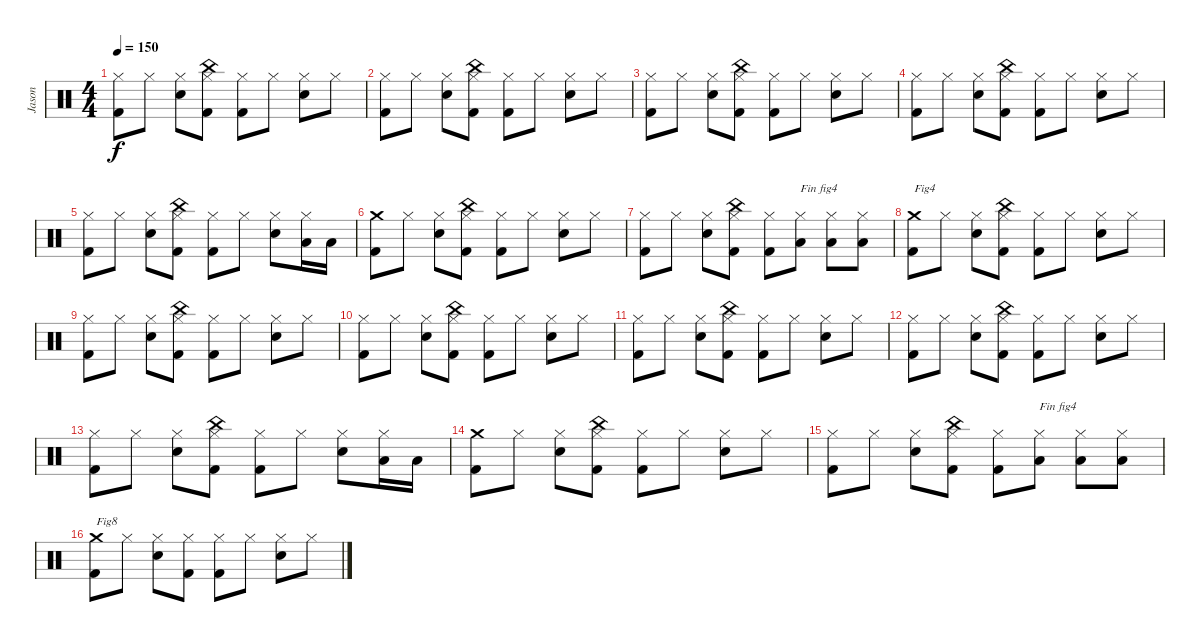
\track ("Jason" "Jason") {instrument percussion}
\staff {score}
\articulation defaults
\ts (4 4)
\tempo 150
\clef neutral
\ks c
("Kick (hit) 2" "Hi-Hat (closed)").8{dy f} "Hi-Hat (closed)".8 ("Electric Snare (hit)" "Hi-Hat (closed)").8 ("Kick (hit) 2" "China (hit)" "Hi-Hat (closed)").8 ("Kick (hit) 2" "Hi-Hat (closed)").8 "Hi-Hat (closed)".8 ("Electric Snare (hit)" "Hi-Hat (closed)").8 "Hi-Hat (closed)".8 |
("Kick (hit) 2" "Hi-Hat (closed)").8 "Hi-Hat (closed)".8 ("Electric Snare (hit)" "Hi-Hat (closed)").8 ("Kick (hit) 2" "China (hit)" "Hi-Hat (closed)").8 ("Kick (hit) 2" "Hi-Hat (closed)").8 "Hi-Hat (closed)".8 ("Electric Snare (hit)" "Hi-Hat (closed)").8 "Hi-Hat (closed)".8 |
("Kick (hit) 2" "Hi-Hat (closed)").8 "Hi-Hat (closed)".8 ("Electric Snare (hit)" "Hi-Hat (closed)").8 ("Kick (hit) 2" "China (hit)" "Hi-Hat (closed)").8 ("Kick (hit) 2" "Hi-Hat (closed)").8 "Hi-Hat (closed)".8 ("Electric Snare (hit)" "Hi-Hat (closed)").8 "Hi-Hat (closed)".8 |
("Kick (hit) 2" "Hi-Hat (closed)").8 "Hi-Hat (closed)".8 ("Electric Snare (hit)" "Hi-Hat (closed)").8 ("Kick (hit) 2" "China (hit)" "Hi-Hat (closed)").8 ("Kick (hit) 2" "Hi-Hat (closed)").8 "Hi-Hat (closed)".8 ("Electric Snare (hit)" "Hi-Hat (closed)").8 "Hi-Hat (closed)".8 |
("Kick (hit) 2" "Hi-Hat (closed)").8 "Hi-Hat (closed)".8 ("Electric Snare (hit)" "Hi-Hat (closed)").8 ("Kick (hit) 2" "China (hit)" "Hi-Hat (closed)").8 ("Kick (hit) 2" "Hi-Hat (closed)").8 "Hi-Hat (closed)".8 ("Electric Snare (hit)" "Hi-Hat (closed)").8 ("Low Tom (hit)" "Hi-Hat (closed)").16 "Low Tom (hit)".16 |
("Kick (hit) 2" "Crash medium (hit)").8 "Hi-Hat (closed)".8 ("Electric Snare (hit)" "Hi-Hat (closed)").8 ("Kick (hit) 2" "China (hit)" "Hi-Hat (closed)").8 ("Kick (hit) 2" "Hi-Hat (closed)").8 "Hi-Hat (closed)".8 ("Electric Snare (hit)" "Hi-Hat (closed)").8 "Hi-Hat (closed)".8 |
("Kick (hit) 2" "Hi-Hat (closed)").8 "Hi-Hat (closed)".8 ("Electric Snare (hit)" "Hi-Hat (closed)").8 ("Kick (hit) 2" "China (hit)" "Hi-Hat (closed)").8 ("Kick (hit) 2" "Hi-Hat (closed)").8 ("Low Tom (hit)" "Hi-Hat (closed)").8{txt "Fin fig4"} ("Low Tom (hit)" "Hi-Hat (closed)").8 ("Low Tom (hit)" "Hi-Hat (closed)").8 |
("Kick (hit) 2" "Crash medium (hit)").8{txt "Fig4"} "Hi-Hat (closed)".8 ("Electric Snare (hit)" "Hi-Hat (closed)").8 ("Kick (hit) 2" "China (hit)" "Hi-Hat (closed)").8 ("Kick (hit) 2" "Hi-Hat (closed)").8 "Hi-Hat (closed)".8 ("Electric Snare (hit)" "Hi-Hat (closed)").8 "Hi-Hat (closed)".8 |
("Kick (hit) 2" "Hi-Hat (closed)").8 "Hi-Hat (closed)".8 ("Electric Snare (hit)" "Hi-Hat (closed)").8 ("Kick (hit) 2" "China (hit)" "Hi-Hat (closed)").8 ("Kick (hit) 2" "Hi-Hat (closed)").8 "Hi-Hat (closed)".8 ("Electric Snare (hit)" "Hi-Hat (closed)").8 "Hi-Hat (closed)".8 |
("Kick (hit) 2" "Hi-Hat (closed)").8 "Hi-Hat (closed)".8 ("Electric Snare (hit)" "Hi-Hat (closed)").8 ("Kick (hit) 2" "China (hit)" "Hi-Hat (closed)").8 ("Kick (hit) 2" "Hi-Hat (closed)").8 "Hi-Hat (closed)".8 ("Electric Snare (hit)" "Hi-Hat (closed)").8 "Hi-Hat (closed)".8 |
("Kick (hit) 2" "Hi-Hat (closed)").8 "Hi-Hat (closed)".8 ("Electric Snare (hit)" "Hi-Hat (closed)").8 ("Kick (hit) 2" "China (hit)" "Hi-Hat (closed)").8 ("Kick (hit) 2" "Hi-Hat (closed)").8 "Hi-Hat (closed)".8 ("Electric Snare (hit)" "Hi-Hat (closed)").8 "Hi-Hat (closed)".8 |
("Kick (hit) 2" "Hi-Hat (closed)").8 "Hi-Hat (closed)".8 ("Electric Snare (hit)" "Hi-Hat (closed)").8 ("Kick (hit) 2" "China (hit)" "Hi-Hat (closed)").8 ("Kick (hit) 2" "Hi-Hat (closed)").8 "Hi-Hat (closed)".8 ("Electric Snare (hit)" "Hi-Hat (closed)").8 "Hi-Hat (closed)".8 |
("Kick (hit) 2" "Hi-Hat (closed)").8 "Hi-Hat (closed)".8 ("Electric Snare (hit)" "Hi-Hat (closed)").8 ("Kick (hit) 2" "China (hit)" "Hi-Hat (closed)").8 ("Kick (hit) 2" "Hi-Hat (closed)").8 "Hi-Hat (closed)".8 ("Electric Snare (hit)" "Hi-Hat (closed)").8 ("Low Tom (hit)" "Hi-Hat (closed)").16 "Low Tom (hit)".16 |
("Kick (hit) 2" "Crash medium (hit)").8 "Hi-Hat (closed)".8 ("Electric Snare (hit)" "Hi-Hat (closed)").8 ("Kick (hit) 2" "China (hit)" "Hi-Hat (closed)").8 ("Kick (hit) 2" "Hi-Hat (closed)").8 "Hi-Hat (closed)".8 ("Electric Snare (hit)" "Hi-Hat (closed)").8 "Hi-Hat (closed)".8 |
("Kick (hit) 2" "Hi-Hat (closed)").8 "Hi-Hat (closed)".8 ("Electric Snare (hit)" "Hi-Hat (closed)").8 ("Kick (hit) 2" "China (hit)" "Hi-Hat (closed)").8 ("Kick (hit) 2" "Hi-Hat (closed)").8 ("Low Tom (hit)" "Hi-Hat (closed)").8{txt "Fin fig4"} ("Low Tom (hit)" "Hi-Hat (closed)").8 ("Low Tom (hit)" "Hi-Hat (closed)").8 |
("Kick (hit) 2" "Crash medium (hit)").8{txt "Fig8"} "Hi-Hat (closed)".8 ("Electric Snare (hit)" "Hi-Hat (closed)").8 ("Kick (hit) 2" "Hi-Hat (closed)").8 ("Kick (hit) 2" "Hi-Hat (closed)").8 "Hi-Hat (closed)".8 ("Electric Snare (hit)" "Hi-Hat (closed)").8 "Hi-Hat (closed)".8
